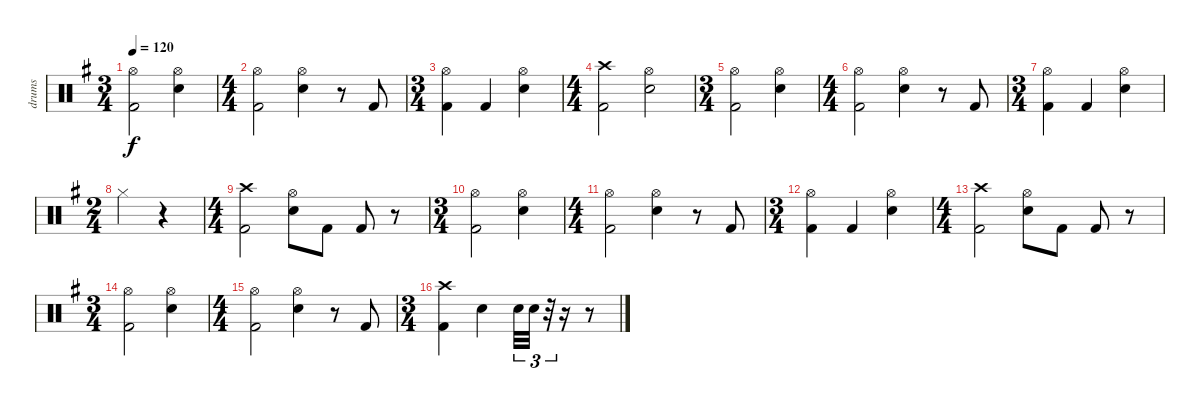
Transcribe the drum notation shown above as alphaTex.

\track ("drums" "drums") {instrument percussion}
\staff {score}
\articulation defaults
\ts (3 4)
\tempo 120
\clef neutral
\ks g
("Hi-Hat (open)" "Kick (hit) 2").2{dy f} ("Hi-Hat (open)" "Snare (hit) 2").4 |
\ts (4 4)
("Hi-Hat (open)" "Kick (hit) 2").2 ("Hi-Hat (open)" "Snare (hit) 2").4 r.8 "Kick (hit) 2".8 |
\ts (3 4)
("Hi-Hat (open)" "Kick (hit) 2").4 "Kick (hit) 2".4 ("Hi-Hat (open)" "Snare (hit) 2").4 |
\ts (4 4)
("Crash high (hit)" "Kick (hit) 2").2 ("Hi-Hat (open)" "Snare (hit) 2").2 |
\ts (3 4)
("Hi-Hat (open)" "Kick (hit) 2").2 ("Hi-Hat (open)" "Snare (hit) 2").4 |
\ts (4 4)
("Hi-Hat (open)" "Kick (hit) 2").2 ("Hi-Hat (open)" "Snare (hit) 2").4 r.8 "Kick (hit) 2".8 |
\ts (3 4)
("Hi-Hat (open)" "Kick (hit) 2").4 "Kick (hit) 2".4 ("Hi-Hat (open)" "Snare (hit) 2").4 |
\ts (2 4)
"Hi-Hat (closed)".4 r.4 |
\ts (4 4)
("Crash high (hit)" "Kick (hit) 2").2 ("Hi-Hat (open)" "Snare (hit) 2").8 "Kick (hit) 2".8 "Kick (hit) 2".8 r.8 |
\ts (3 4)
("Hi-Hat (open)" "Kick (hit) 2").2 ("Hi-Hat (open)" "Snare (hit) 2").4 |
\ts (4 4)
("Hi-Hat (open)" "Kick (hit) 2").2 ("Hi-Hat (open)" "Snare (hit) 2").4 r.8 "Kick (hit) 2".8 |
\ts (3 4)
("Hi-Hat (open)" "Kick (hit) 2").4 "Kick (hit) 2".4 ("Hi-Hat (open)" "Snare (hit) 2").4 |
\ts (4 4)
("Crash high (hit)" "Kick (hit) 2").2 ("Hi-Hat (open)" "Snare (hit) 2").8 "Kick (hit) 2".8 "Kick (hit) 2".8 r.8 |
\ts (3 4)
("Hi-Hat (open)" "Kick (hit) 2").2 ("Hi-Hat (open)" "Snare (hit) 2").4 |
\ts (4 4)
("Hi-Hat (open)" "Kick (hit) 2").2 ("Hi-Hat (open)" "Snare (hit) 2").4 r.8 "Kick (hit) 2".8 |
\ts (3 4)
("Crash high (hit)" "Kick (hit) 2").4 "Snare (hit) 2".4 "Snare (hit) 2".32{tu (3 2)} "Snare (hit) 2".32{tu (3 2)} r.32{tu (3 2)} r.16 r.8
